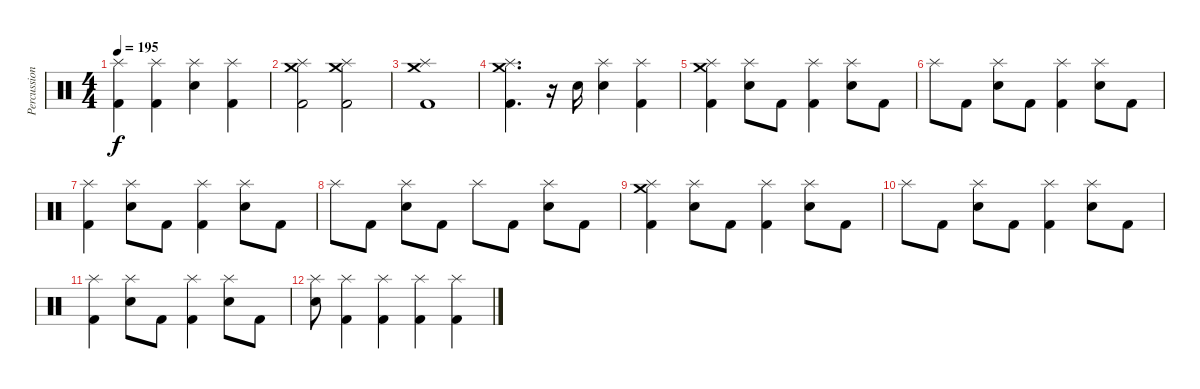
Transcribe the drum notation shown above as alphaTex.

\track ("Percussion" "Percussion") {instrument percussion}
\staff {score}
\articulation defaults
\ts (4 4)
\tempo 195
\clef neutral
\ks c
("Splash (hit)" "Kick (hit) 2").4{dy f} ("Splash (hit)" "Kick (hit) 2").4 ("Splash (hit)" "Electric Snare (hit)").4 ("Splash (hit)" "Kick (hit) 2").4 |
("Crash medium (hit)" "Splash (hit)" "Kick (hit) 2").2 ("Crash medium (hit)" "Splash (hit)" "Kick (hit) 2").2 |
("Crash medium (hit)" "Splash (hit)" "Kick (hit) 2").1 |
("Crash medium (hit)" "Splash (hit)" "Kick (hit) 2").4{d} r.16 "Electric Snare (hit)".16 ("Splash (hit)" "Electric Snare (hit)").4 ("Splash (hit)" "Kick (hit) 2").4 |
("Crash medium (hit)" "Splash (hit)" "Kick (hit) 2").4 ("Splash (hit)" "Electric Snare (hit)").8 "Kick (hit) 2".8 ("Splash (hit)" "Kick (hit) 2").4 ("Splash (hit)" "Electric Snare (hit)").8 "Kick (hit) 2".8 |
"Splash (hit)".8 "Kick (hit) 2".8 ("Splash (hit)" "Electric Snare (hit)").8 "Kick (hit) 2".8 ("Splash (hit)" "Kick (hit) 2").4 ("Splash (hit)" "Electric Snare (hit)").8 "Kick (hit) 2".8 |
("Splash (hit)" "Kick (hit) 2").4 ("Splash (hit)" "Electric Snare (hit)").8 "Kick (hit) 2".8 ("Splash (hit)" "Kick (hit) 2").4 ("Splash (hit)" "Electric Snare (hit)").8 "Kick (hit) 2".8 |
"Splash (hit)".8 "Kick (hit) 2".8 ("Splash (hit)" "Electric Snare (hit)").8 "Kick (hit) 2".8 "Splash (hit)".8 "Kick (hit) 2".8 ("Splash (hit)" "Electric Snare (hit)").8 "Kick (hit) 2".8 |
("Crash medium (hit)" "Splash (hit)" "Kick (hit) 2").4 ("Splash (hit)" "Electric Snare (hit)").8 "Kick (hit) 2".8 ("Splash (hit)" "Kick (hit) 2").4 ("Splash (hit)" "Electric Snare (hit)").8 "Kick (hit) 2".8 |
"Splash (hit)".8 "Kick (hit) 2".8 ("Splash (hit)" "Electric Snare (hit)").8 "Kick (hit) 2".8 ("Splash (hit)" "Kick (hit) 2").4 ("Splash (hit)" "Electric Snare (hit)").8 "Kick (hit) 2".8 |
("Splash (hit)" "Kick (hit) 2").4 ("Splash (hit)" "Electric Snare (hit)").8 "Kick (hit) 2".8 ("Splash (hit)" "Kick (hit) 2").4 ("Splash (hit)" "Electric Snare (hit)").8 "Kick (hit) 2".8 |
("Splash (hit)" "Electric Snare (hit)").8 ("Splash (hit)" "Kick (hit) 2").4 ("Splash (hit)" "Kick (hit) 2").4 ("Splash (hit)" "Kick (hit) 2").4{volume 13} ("Splash (hit)" "Kick (hit) 2").4
